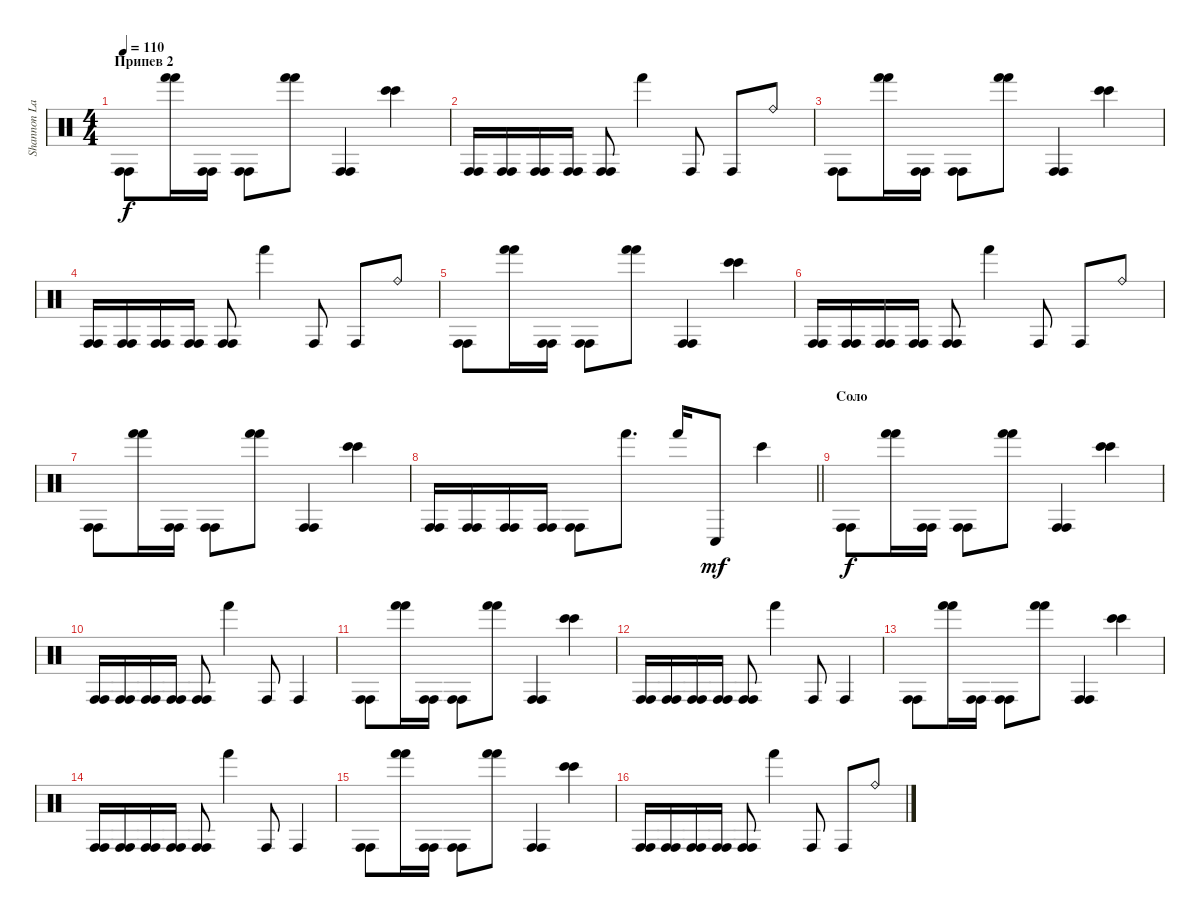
\track ("Shannon Larkin [Percussion 1]" "Shannon La") {instrument percussion}
\staff {score}
\articulation defaults
\ts (4 4)
\section ("" "Припев 2")
\tempo 110
\clef neutral
\ks c
("Conga high (hit)" "Conga high (hit)").8{dy f} ("Hand (hit)" "Hand (hit)").16 ("Conga high (hit)" "Conga high (hit)").16 ("Conga high (hit)" "Conga high (hit)").8 ("Hand (hit)" "Hand (hit)").8 ("Conga high (hit)" "Conga high (hit)").4 ("Bongo High (hit)" "Bongo High (hit)").4 |
("Conga high (hit)" "Conga high (hit)").16 ("Conga high (hit)" "Conga high (hit)").16 ("Conga high (hit)" "Conga high (hit)").16 ("Conga high (hit)" "Conga high (hit)").16 ("Conga high (hit)" "Conga high (hit)").8 "Hand (hit)".4 "Conga high (hit)".8 "Conga high (hit)".8 "Ride (bell)".8 |
("Conga high (hit)" "Conga high (hit)").8 ("Hand (hit)" "Hand (hit)").16 ("Conga high (hit)" "Conga high (hit)").16 ("Conga high (hit)" "Conga high (hit)").8 ("Hand (hit)" "Hand (hit)").8 ("Conga high (hit)" "Conga high (hit)").4 ("Bongo High (hit)" "Bongo High (hit)").4 |
("Conga high (hit)" "Conga high (hit)").16 ("Conga high (hit)" "Conga high (hit)").16 ("Conga high (hit)" "Conga high (hit)").16 ("Conga high (hit)" "Conga high (hit)").16 ("Conga high (hit)" "Conga high (hit)").8 "Hand (hit)".4 "Conga high (hit)".8 "Conga high (hit)".8 "Ride (bell)".8 |
("Conga high (hit)" "Conga high (hit)").8 ("Hand (hit)" "Hand (hit)").16 ("Conga high (hit)" "Conga high (hit)").16 ("Conga high (hit)" "Conga high (hit)").8 ("Hand (hit)" "Hand (hit)").8 ("Conga high (hit)" "Conga high (hit)").4 ("Bongo High (hit)" "Bongo High (hit)").4 |
("Conga high (hit)" "Conga high (hit)").16 ("Conga high (hit)" "Conga high (hit)").16 ("Conga high (hit)" "Conga high (hit)").16 ("Conga high (hit)" "Conga high (hit)").16 ("Conga high (hit)" "Conga high (hit)").8 "Hand (hit)".4 "Conga high (hit)".8 "Conga high (hit)".8 "Ride (bell)".8 |
("Conga high (hit)" "Conga high (hit)").8 ("Hand (hit)" "Hand (hit)").16 ("Conga high (hit)" "Conga high (hit)").16 ("Conga high (hit)" "Conga high (hit)").8 ("Hand (hit)" "Hand (hit)").8 ("Conga high (hit)" "Conga high (hit)").4 ("Bongo High (hit)" "Bongo High (hit)").4 |
\barLineRight lightlight
("Conga high (hit)" "Conga high (hit)").16 ("Conga high (hit)" "Conga high (hit)").16 ("Conga high (hit)" "Conga high (hit)").16 ("Conga high (hit)" "Conga high (hit)").16 ("Conga high (hit)" "Conga high (hit)").8 "Hand (hit)".8{d} "Hand (hit)".16 "Conga low (hit)".8{dy mf} "Bongo High (hit)".4 |
\section ("" "Соло")
("Conga high (hit)" "Conga high (hit)").8{dy f} ("Hand (hit)" "Hand (hit)").16 ("Conga high (hit)" "Conga high (hit)").16 ("Conga high (hit)" "Conga high (hit)").8 ("Hand (hit)" "Hand (hit)").8 ("Conga high (hit)" "Conga high (hit)").4 ("Bongo High (hit)" "Bongo High (hit)").4 |
("Conga high (hit)" "Conga high (hit)").16 ("Conga high (hit)" "Conga high (hit)").16 ("Conga high (hit)" "Conga high (hit)").16 ("Conga high (hit)" "Conga high (hit)").16 ("Conga high (hit)" "Conga high (hit)").8 "Hand (hit)".4 "Conga high (hit)".8 "Conga high (hit)".4 |
("Conga high (hit)" "Conga high (hit)").8 ("Hand (hit)" "Hand (hit)").16 ("Conga high (hit)" "Conga high (hit)").16 ("Conga high (hit)" "Conga high (hit)").8 ("Hand (hit)" "Hand (hit)").8 ("Conga high (hit)" "Conga high (hit)").4 ("Bongo High (hit)" "Bongo High (hit)").4 |
("Conga high (hit)" "Conga high (hit)").16 ("Conga high (hit)" "Conga high (hit)").16 ("Conga high (hit)" "Conga high (hit)").16 ("Conga high (hit)" "Conga high (hit)").16 ("Conga high (hit)" "Conga high (hit)").8 "Hand (hit)".4 "Conga high (hit)".8 "Conga high (hit)".4 |
("Conga high (hit)" "Conga high (hit)").8 ("Hand (hit)" "Hand (hit)").16 ("Conga high (hit)" "Conga high (hit)").16 ("Conga high (hit)" "Conga high (hit)").8 ("Hand (hit)" "Hand (hit)").8 ("Conga high (hit)" "Conga high (hit)").4 ("Bongo High (hit)" "Bongo High (hit)").4 |
("Conga high (hit)" "Conga high (hit)").16 ("Conga high (hit)" "Conga high (hit)").16 ("Conga high (hit)" "Conga high (hit)").16 ("Conga high (hit)" "Conga high (hit)").16 ("Conga high (hit)" "Conga high (hit)").8 "Hand (hit)".4 "Conga high (hit)".8 "Conga high (hit)".4 |
("Conga high (hit)" "Conga high (hit)").8 ("Hand (hit)" "Hand (hit)").16 ("Conga high (hit)" "Conga high (hit)").16 ("Conga high (hit)" "Conga high (hit)").8 ("Hand (hit)" "Hand (hit)").8 ("Conga high (hit)" "Conga high (hit)").4 ("Bongo High (hit)" "Bongo High (hit)").4 |
("Conga high (hit)" "Conga high (hit)").16 ("Conga high (hit)" "Conga high (hit)").16 ("Conga high (hit)" "Conga high (hit)").16 ("Conga high (hit)" "Conga high (hit)").16 ("Conga high (hit)" "Conga high (hit)").8 "Hand (hit)".4 "Conga high (hit)".8 "Conga high (hit)".8 "Ride (bell)".8
